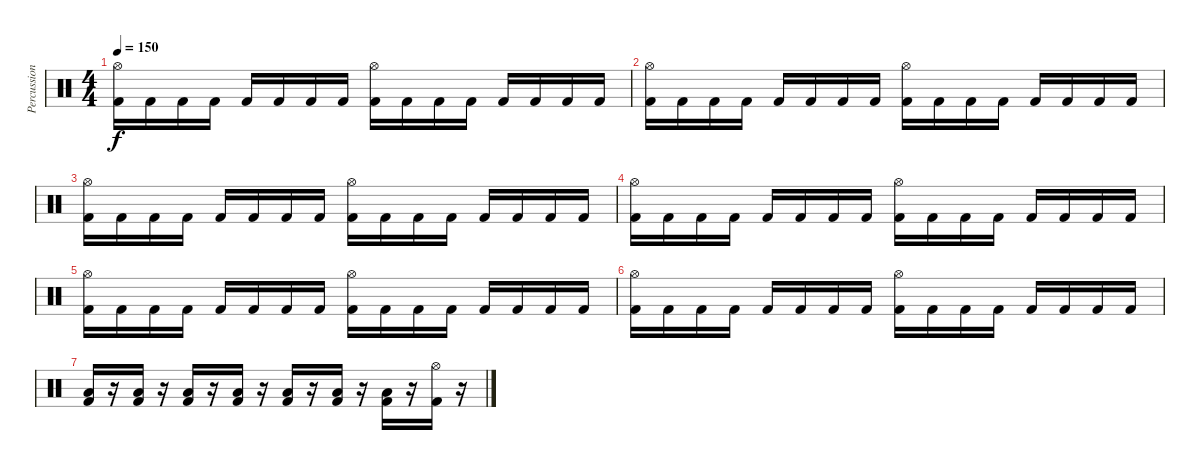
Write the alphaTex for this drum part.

\track ("Percussion" "Percussion") {instrument percussion}
\staff {score}
\articulation defaults
\ts (4 4)
\tempo 150
\clef neutral
\ks c
("Hi-Hat (open)" "Kick (hit) 2").16{dy f} "Kick (hit) 2".16 "Kick (hit) 2".16 "Kick (hit) 2".16 "Kick (hit) 2".16 "Kick (hit) 2".16 "Kick (hit) 2".16 "Kick (hit) 2".16 ("Hi-Hat (open)" "Kick (hit) 2").16 "Kick (hit) 2".16 "Kick (hit) 2".16 "Kick (hit) 2".16 "Kick (hit) 2".16 "Kick (hit) 2".16 "Kick (hit) 2".16 "Kick (hit) 2".16 |
("Hi-Hat (open)" "Kick (hit) 2").16 "Kick (hit) 2".16 "Kick (hit) 2".16 "Kick (hit) 2".16 "Kick (hit) 2".16 "Kick (hit) 2".16 "Kick (hit) 2".16 "Kick (hit) 2".16 ("Hi-Hat (open)" "Kick (hit) 2").16 "Kick (hit) 2".16 "Kick (hit) 2".16 "Kick (hit) 2".16 "Kick (hit) 2".16 "Kick (hit) 2".16 "Kick (hit) 2".16 "Kick (hit) 2".16 |
("Hi-Hat (open)" "Kick (hit) 2").16 "Kick (hit) 2".16 "Kick (hit) 2".16 "Kick (hit) 2".16 "Kick (hit) 2".16 "Kick (hit) 2".16 "Kick (hit) 2".16 "Kick (hit) 2".16 ("Hi-Hat (open)" "Kick (hit) 2").16 "Kick (hit) 2".16 "Kick (hit) 2".16 "Kick (hit) 2".16 "Kick (hit) 2".16 "Kick (hit) 2".16 "Kick (hit) 2".16 "Kick (hit) 2".16 |
("Hi-Hat (open)" "Kick (hit) 2").16 "Kick (hit) 2".16 "Kick (hit) 2".16 "Kick (hit) 2".16 "Kick (hit) 2".16 "Kick (hit) 2".16 "Kick (hit) 2".16 "Kick (hit) 2".16 ("Hi-Hat (open)" "Kick (hit) 2").16 "Kick (hit) 2".16 "Kick (hit) 2".16 "Kick (hit) 2".16 "Kick (hit) 2".16 "Kick (hit) 2".16 "Kick (hit) 2".16 "Kick (hit) 2".16 |
("Hi-Hat (open)" "Kick (hit) 2").16 "Kick (hit) 2".16 "Kick (hit) 2".16 "Kick (hit) 2".16 "Kick (hit) 2".16 "Kick (hit) 2".16 "Kick (hit) 2".16 "Kick (hit) 2".16 ("Hi-Hat (open)" "Kick (hit) 2").16 "Kick (hit) 2".16 "Kick (hit) 2".16 "Kick (hit) 2".16 "Kick (hit) 2".16 "Kick (hit) 2".16 "Kick (hit) 2".16 "Kick (hit) 2".16 |
("Hi-Hat (open)" "Kick (hit) 2").16 "Kick (hit) 2".16 "Kick (hit) 2".16 "Kick (hit) 2".16 "Kick (hit) 2".16 "Kick (hit) 2".16 "Kick (hit) 2".16 "Kick (hit) 2".16 ("Hi-Hat (open)" "Kick (hit) 2").16 "Kick (hit) 2".16 "Kick (hit) 2".16 "Kick (hit) 2".16 "Kick (hit) 2".16 "Kick (hit) 2".16 "Kick (hit) 2".16 "Kick (hit) 2".16 |
("Low Floor Tom (hit)" "Kick (hit) 2").16 r.16 ("Low Floor Tom (hit)" "Kick (hit) 2").16 r.16 ("Low Floor Tom (hit)" "Kick (hit) 2").16 r.16 ("Low Floor Tom (hit)" "Kick (hit) 2").16 r.16 ("Low Floor Tom (hit)" "Kick (hit) 2").16 r.16 ("Low Floor Tom (hit)" "Kick (hit) 2").16 r.16 ("Low Floor Tom (hit)" "Kick (hit) 2").16 r.16 ("Hi-Hat (open)" "Kick (hit) 2").16 r.16
